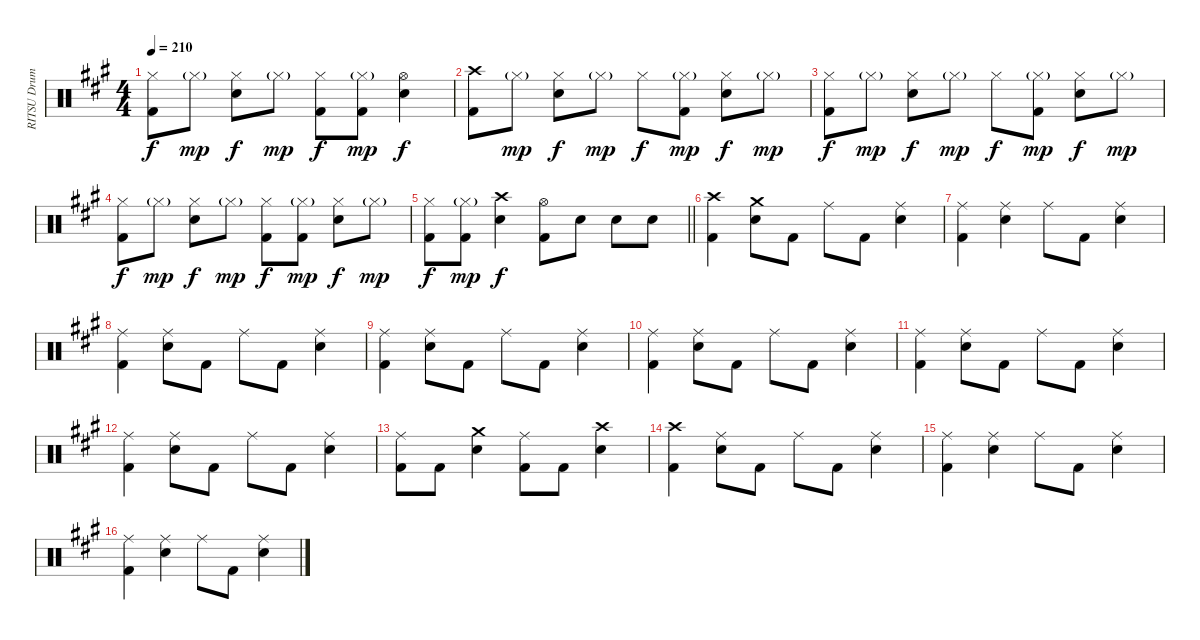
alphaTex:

\track ("RITSU Drums" "RITSU Drum") {instrument percussion}
\staff {score}
\articulation defaults
\ts (4 4)
\tempo 210
\clef neutral
\ks a
("Hi-Hat (closed)" "Kick (hit) 2").8{dy f} "Hi-Hat (closed)"{g}.8{dy mp} ("Hi-Hat (closed)" "Electric Snare (hit)").8{dy f} "Hi-Hat (closed)"{g}.8{dy mp} ("Hi-Hat (closed)" "Kick (hit) 2").8{dy f} ("Hi-Hat (closed)"{g} "Kick (hit) 2").8{dy mp} ("Hi-Hat (open)" "Electric Snare (hit)").4{dy f} |
("Crash high (hit)" "Kick (hit) 2").8 "Hi-Hat (closed)"{g}.8{dy mp} ("Hi-Hat (closed)" "Electric Snare (hit)").8{dy f} "Hi-Hat (closed)"{g}.8{dy mp} "Hi-Hat (closed)".8{dy f} ("Hi-Hat (closed)"{g} "Kick (hit) 2").8{dy mp} ("Hi-Hat (closed)" "Electric Snare (hit)").8{dy f} "Hi-Hat (closed)"{g}.8{dy mp} |
("Hi-Hat (closed)" "Kick (hit) 2").8{dy f} "Hi-Hat (closed)"{g}.8{dy mp} ("Hi-Hat (closed)" "Electric Snare (hit)").8{dy f} "Hi-Hat (closed)"{g}.8{dy mp} "Hi-Hat (closed)".8{dy f} ("Hi-Hat (closed)"{g} "Kick (hit) 2").8{dy mp} ("Hi-Hat (closed)" "Electric Snare (hit)").8{dy f} "Hi-Hat (closed)"{g}.8{dy mp} |
("Hi-Hat (closed)" "Kick (hit) 2").8{dy f} "Hi-Hat (closed)"{g}.8{dy mp} ("Hi-Hat (closed)" "Electric Snare (hit)").8{dy f} "Hi-Hat (closed)"{g}.8{dy mp} ("Hi-Hat (closed)" "Kick (hit) 2").8{dy f} ("Hi-Hat (closed)"{g} "Kick (hit) 2").8{dy mp} ("Hi-Hat (closed)" "Electric Snare (hit)").8{dy f} "Hi-Hat (closed)"{g}.8{dy mp} |
\barLineRight lightlight
("Hi-Hat (closed)" "Kick (hit) 2").8{dy f} ("Hi-Hat (closed)"{g} "Kick (hit) 2").8{dy mp} ("Crash high (hit)" "Electric Snare (hit)").4{dy f} ("Hi-Hat (open)" "Kick (hit) 2").8 "Electric Snare (hit)".8 "Electric Snare (hit)".8 "Electric Snare (hit)".8 |
("Crash high (hit)" "Kick (hit) 2").4 ("Crash medium (hit)" "Electric Snare (hit)").8 "Kick (hit) 2".8 "Ride (middle)".8 "Kick (hit) 2".8 ("Ride (middle)" "Electric Snare (hit)").4 |
("Ride (middle)" "Kick (hit) 2").4 ("Ride (middle)" "Electric Snare (hit)").4 "Ride (middle)".8 "Kick (hit) 2".8 ("Ride (middle)" "Electric Snare (hit)").4 |
("Ride (middle)" "Kick (hit) 2").4 ("Ride (middle)" "Electric Snare (hit)").8 "Kick (hit) 2".8 "Ride (middle)".8 "Kick (hit) 2".8 ("Ride (middle)" "Electric Snare (hit)").4 |
("Ride (middle)" "Kick (hit) 2").4 ("Ride (middle)" "Electric Snare (hit)").8 "Kick (hit) 2".8 "Ride (middle)".8 "Kick (hit) 2".8 ("Ride (middle)" "Electric Snare (hit)").4 |
("Ride (middle)" "Kick (hit) 2").4 ("Ride (middle)" "Electric Snare (hit)").8 "Kick (hit) 2".8 "Ride (middle)".8 "Kick (hit) 2".8 ("Ride (middle)" "Electric Snare (hit)").4 |
("Ride (middle)" "Kick (hit) 2").4 ("Ride (middle)" "Electric Snare (hit)").8 "Kick (hit) 2".8 "Ride (middle)".8 "Kick (hit) 2".8 ("Ride (middle)" "Electric Snare (hit)").4 |
("Ride (middle)" "Kick (hit) 2").4 ("Ride (middle)" "Electric Snare (hit)").8 "Kick (hit) 2".8 "Ride (middle)".8 "Kick (hit) 2".8 ("Ride (middle)" "Electric Snare (hit)").4 |
("Ride (middle)" "Kick (hit) 2").8 "Kick (hit) 2".8 ("Crash medium (hit)" "Electric Snare (hit)").4 ("Ride (middle)" "Kick (hit) 2").8 "Kick (hit) 2".8 ("Crash high (hit)" "Electric Snare (hit)").4 |
("Crash high (hit)" "Kick (hit) 2").4 ("Ride (middle)" "Electric Snare (hit)").8 "Kick (hit) 2".8 "Ride (middle)".8 "Kick (hit) 2".8 ("Ride (middle)" "Electric Snare (hit)").4 |
("Ride (middle)" "Kick (hit) 2").4 ("Ride (middle)" "Electric Snare (hit)").4 "Ride (middle)".8 "Kick (hit) 2".8 ("Ride (middle)" "Electric Snare (hit)").4 |
("Ride (middle)" "Kick (hit) 2").4 ("Ride (middle)" "Electric Snare (hit)").4 "Ride (middle)".8 "Kick (hit) 2".8 ("Ride (middle)" "Electric Snare (hit)").4
